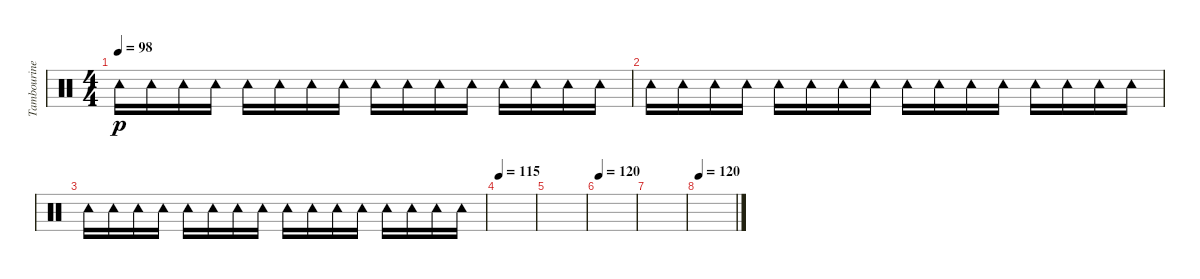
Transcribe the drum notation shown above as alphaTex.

\track ("Tambourine" "Tambourine") {instrument percussion}
\staff {score}
\articulation defaults
\ts (4 4)
\tempo 98
\clef neutral
\ks c "Tambourine (hit)".16{dy p} "Tambourine (hit)".16 "Tambourine (hit)".16 "Tambourine (hit)".16 "Tambourine (hit)".16 "Tambourine (hit)".16 "Tambourine (hit)".16 "Tambourine (hit)".16 "Tambourine (hit)".16 "Tambourine (hit)".16 "Tambourine (hit)".16 "Tambourine (hit)".16 "Tambourine (hit)".16 "Tambourine (hit)".16 "Tambourine (hit)".16 "Tambourine (hit)".16
|
"Tambourine (hit)".16 "Tambourine (hit)".16 "Tambourine (hit)".16 "Tambourine (hit)".16 "Tambourine (hit)".16 "Tambourine (hit)".16 "Tambourine (hit)".16 "Tambourine (hit)".16 "Tambourine (hit)".16 "Tambourine (hit)".16 "Tambourine (hit)".16 "Tambourine (hit)".16 "Tambourine (hit)".16 "Tambourine (hit)".16 "Tambourine (hit)".16 "Tambourine (hit)".16 |
"Tambourine (hit)".16 "Tambourine (hit)".16 "Tambourine (hit)".16 "Tambourine (hit)".16 "Tambourine (hit)".16 "Tambourine (hit)".16 "Tambourine (hit)".16 "Tambourine (hit)".16 "Tambourine (hit)".16 "Tambourine (hit)".16 "Tambourine (hit)".16 "Tambourine (hit)".16 "Tambourine (hit)".16 "Tambourine (hit)".16 "Tambourine (hit)".16 "Tambourine (hit)".16 |
\tempo 115
|
|
\tempo 120
|
|
\tempo 120
